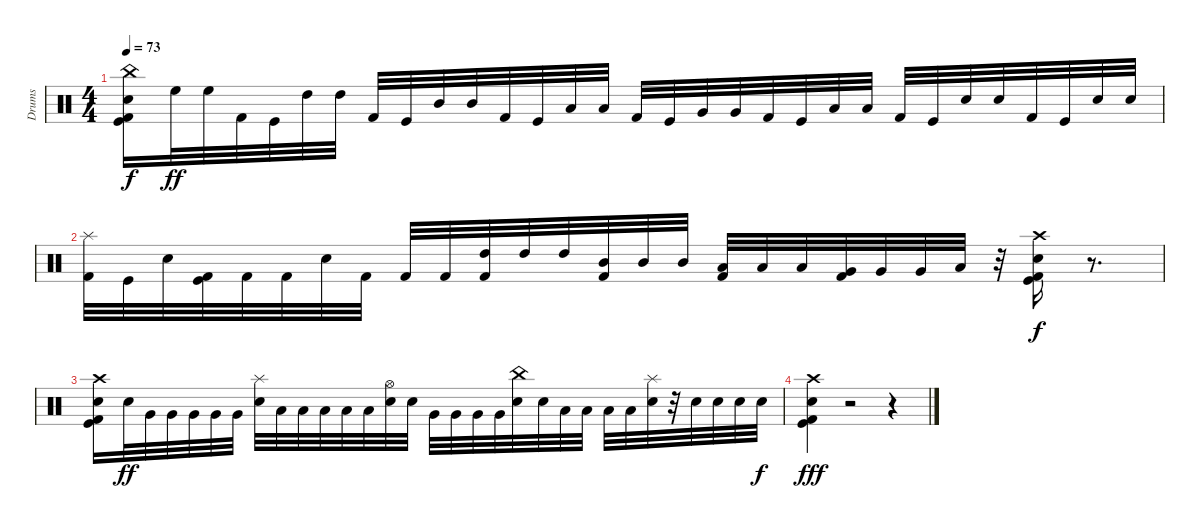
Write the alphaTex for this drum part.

\track ("Drums" "Drums") {instrument percussion}
\staff {score}
\articulation defaults
\ts (4 4)
\tempo 73
\clef neutral
\ks c
("China (hit)" "Kick (hit)" "Kick (hit) 2" "Snare (hit) 2").16{dy f} "High Floor Tom (hit)".32{dy ff} "High Floor Tom (hit)".32 "Kick (hit) 2".32 "Kick (hit)".32 "High Tom (hit)".32 "High Tom (hit)".32 "Kick (hit) 2".32 "Kick (hit)".32 "Mid Tom (hit)".32 "Mid Tom (hit)".32 "Kick (hit) 2".32 "Kick (hit)".32 "Low Tom (hit)".32 "Low Tom (hit)".32 "Kick (hit) 2".32 "Kick (hit)".32 "Very Low Tom (hit)".32 "Very Low Tom (hit)".32 "Kick (hit) 2".32 "Kick (hit)".32 "Low Floor Tom (hit)".32 "Low Floor Tom (hit)".32 "Kick (hit) 2".32 "Kick (hit)".32 "Snare (hit) 2".32 "Snare (hit) 2".32 "Kick (hit) 2".32 "Kick (hit)".32 "Electric Snare (hit)".32 "Electric Snare (hit)".32 |
("Splash (hit)" "Kick (hit) 2").32 "Kick (hit)".32 "Snare (hit) 2".32 ("Kick (hit) 2" "Kick (hit)").32 "Kick (hit) 2".32 "Kick (hit) 2".32 "Electric Snare (hit)".32 "Kick (hit) 2".32 "Kick (hit) 2".32 "Kick (hit) 2".32 ("Kick (hit) 2" "High Tom (hit)").32 "High Tom (hit)".32 "High Tom (hit)".32 ("Kick (hit) 2" "Mid Tom (hit)").32 "Mid Tom (hit)".32 "Mid Tom (hit)".32 ("Kick (hit) 2" "Low Tom (hit)").32 "Low Tom (hit)".32 "Low Tom (hit)".32 ("Kick (hit) 2" "Very Low Tom (hit)").32 "Very Low Tom (hit)".32 "Very Low Tom (hit)".32 "Low Floor Tom (hit)".32 r.32 ("Crash high (hit)" "Snare (hit) 2" "Kick (hit) 2" "Kick (hit)").16{dy f} r.8{d} |
("Crash high (hit)" "Snare (hit) 2" "Kick (hit) 2" "Kick (hit)").16 "Electric Snare (hit)".32{dy ff} "Very Low Tom (hit)".32 "Very Low Tom (hit)".32 "Very Low Tom (hit)".32 "Very Low Tom (hit)".32 "Very Low Tom (hit)".32 ("Splash (hit)" "Electric Snare (hit)").32 "Low Floor Tom (hit)".32 "Low Floor Tom (hit)".32 "Low Floor Tom (hit)".32 "Low Floor Tom (hit)".32 "Low Floor Tom (hit)".32 ("Hi-Hat (open)" "Electric Snare (hit)").32 "Electric Snare (hit)".32 "Very Low Tom (hit)".32 "Very Low Tom (hit)".32 "Very Low Tom (hit)".32 "Very Low Tom (hit)".32 ("China (hit)" "Electric Snare (hit)").32 "Electric Snare (hit)".32 "Low Floor Tom (hit)".32 "Low Floor Tom (hit)".32 "Low Floor Tom (hit)".32 "Low Floor Tom (hit)".32 ("Splash (hit)" "Snare (hit) 2").32 r.32 "Snare (hit) 2".32 "Snare (hit) 2".32 "Electric Snare (hit)".32 "Electric Snare (hit)".32{dy f} |
("Kick (hit)" "Kick (hit) 2" "Snare (hit) 2" "Crash high (hit)").4{dy fff} r.2 r.4
